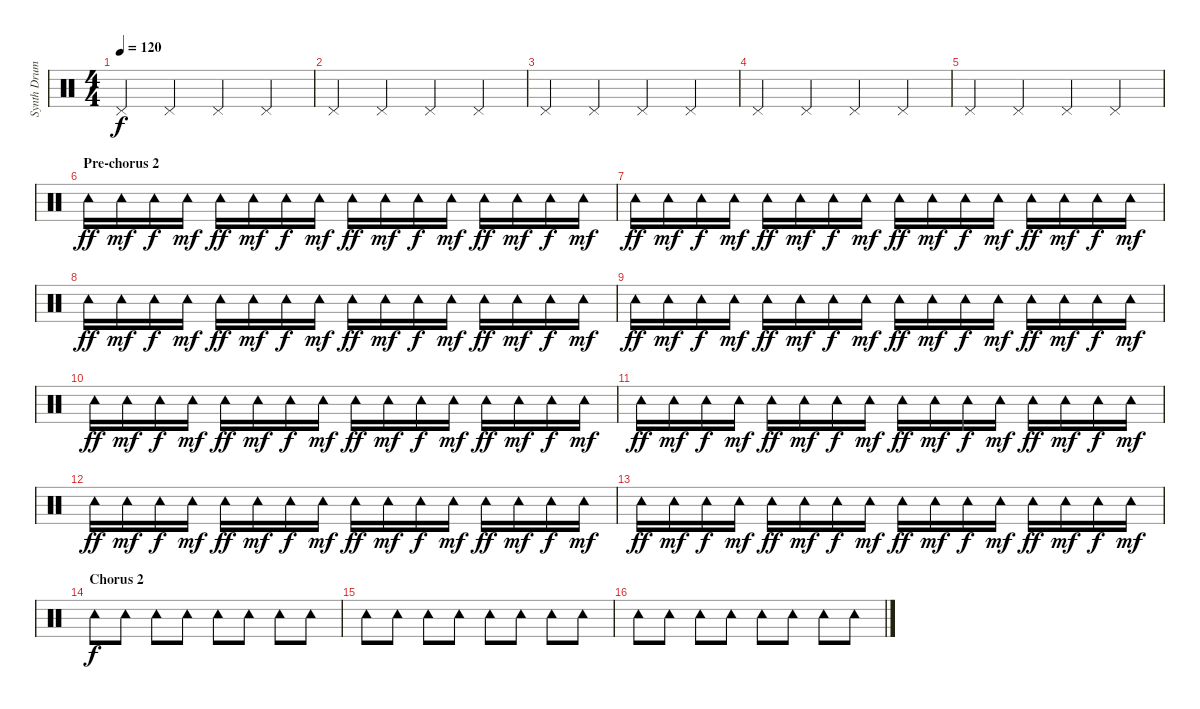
\track ("Synth Drums hihat etc..." "Synth Drum") {instrument percussion}
\staff {score}
\articulation defaults
\ts (4 4)
\tempo 120
\clef neutral
\ks c "Pedal Hi-Hat (hit)".4{dy f} "Pedal Hi-Hat (hit)".4 "Pedal Hi-Hat (hit)".4 "Pedal Hi-Hat (hit)".4
|
"Pedal Hi-Hat (hit)".4 "Pedal Hi-Hat (hit)".4 "Pedal Hi-Hat (hit)".4 "Pedal Hi-Hat (hit)".4 |
"Pedal Hi-Hat (hit)".4 "Pedal Hi-Hat (hit)".4 "Pedal Hi-Hat (hit)".4 "Pedal Hi-Hat (hit)".4 |
"Pedal Hi-Hat (hit)".4 "Pedal Hi-Hat (hit)".4 "Pedal Hi-Hat (hit)".4 "Pedal Hi-Hat (hit)".4 |
"Pedal Hi-Hat (hit)".4 "Pedal Hi-Hat (hit)".4 "Pedal Hi-Hat (hit)".4 "Pedal Hi-Hat (hit)".4 |
\section ("" "Pre-chorus 2")
"Tambourine (hit)".16{dy ff} "Tambourine (hit)".16{dy mf} "Tambourine (hit)".16{dy f} "Tambourine (hit)".16{dy mf} "Tambourine (hit)".16{dy ff} "Tambourine (hit)".16{dy mf} "Tambourine (hit)".16{dy f} "Tambourine (hit)".16{dy mf} "Tambourine (hit)".16{dy ff} "Tambourine (hit)".16{dy mf} "Tambourine (hit)".16{dy f} "Tambourine (hit)".16{dy mf} "Tambourine (hit)".16{dy ff} "Tambourine (hit)".16{dy mf} "Tambourine (hit)".16{dy f} "Tambourine (hit)".16{dy mf} |
"Tambourine (hit)".16{dy ff} "Tambourine (hit)".16{dy mf} "Tambourine (hit)".16{dy f} "Tambourine (hit)".16{dy mf} "Tambourine (hit)".16{dy ff} "Tambourine (hit)".16{dy mf} "Tambourine (hit)".16{dy f} "Tambourine (hit)".16{dy mf} "Tambourine (hit)".16{dy ff} "Tambourine (hit)".16{dy mf} "Tambourine (hit)".16{dy f} "Tambourine (hit)".16{dy mf} "Tambourine (hit)".16{dy ff} "Tambourine (hit)".16{dy mf} "Tambourine (hit)".16{dy f} "Tambourine (hit)".16{dy mf} |
"Tambourine (hit)".16{dy ff} "Tambourine (hit)".16{dy mf} "Tambourine (hit)".16{dy f} "Tambourine (hit)".16{dy mf} "Tambourine (hit)".16{dy ff} "Tambourine (hit)".16{dy mf} "Tambourine (hit)".16{dy f} "Tambourine (hit)".16{dy mf} "Tambourine (hit)".16{dy ff} "Tambourine (hit)".16{dy mf} "Tambourine (hit)".16{dy f} "Tambourine (hit)".16{dy mf} "Tambourine (hit)".16{dy ff} "Tambourine (hit)".16{dy mf} "Tambourine (hit)".16{dy f} "Tambourine (hit)".16{dy mf} |
"Tambourine (hit)".16{dy ff} "Tambourine (hit)".16{dy mf} "Tambourine (hit)".16{dy f} "Tambourine (hit)".16{dy mf} "Tambourine (hit)".16{dy ff} "Tambourine (hit)".16{dy mf} "Tambourine (hit)".16{dy f} "Tambourine (hit)".16{dy mf} "Tambourine (hit)".16{dy ff} "Tambourine (hit)".16{dy mf} "Tambourine (hit)".16{dy f} "Tambourine (hit)".16{dy mf} "Tambourine (hit)".16{dy ff} "Tambourine (hit)".16{dy mf} "Tambourine (hit)".16{dy f} "Tambourine (hit)".16{dy mf} |
"Tambourine (hit)".16{dy ff} "Tambourine (hit)".16{dy mf} "Tambourine (hit)".16{dy f} "Tambourine (hit)".16{dy mf} "Tambourine (hit)".16{dy ff} "Tambourine (hit)".16{dy mf} "Tambourine (hit)".16{dy f} "Tambourine (hit)".16{dy mf} "Tambourine (hit)".16{dy ff} "Tambourine (hit)".16{dy mf} "Tambourine (hit)".16{dy f} "Tambourine (hit)".16{dy mf} "Tambourine (hit)".16{dy ff} "Tambourine (hit)".16{dy mf} "Tambourine (hit)".16{dy f} "Tambourine (hit)".16{dy mf} |
"Tambourine (hit)".16{dy ff} "Tambourine (hit)".16{dy mf} "Tambourine (hit)".16{dy f} "Tambourine (hit)".16{dy mf} "Tambourine (hit)".16{dy ff} "Tambourine (hit)".16{dy mf} "Tambourine (hit)".16{dy f} "Tambourine (hit)".16{dy mf} "Tambourine (hit)".16{dy ff} "Tambourine (hit)".16{dy mf} "Tambourine (hit)".16{dy f} "Tambourine (hit)".16{dy mf} "Tambourine (hit)".16{dy ff} "Tambourine (hit)".16{dy mf} "Tambourine (hit)".16{dy f} "Tambourine (hit)".16{dy mf} |
"Tambourine (hit)".16{dy ff} "Tambourine (hit)".16{dy mf} "Tambourine (hit)".16{dy f} "Tambourine (hit)".16{dy mf} "Tambourine (hit)".16{dy ff} "Tambourine (hit)".16{dy mf} "Tambourine (hit)".16{dy f} "Tambourine (hit)".16{dy mf} "Tambourine (hit)".16{dy ff} "Tambourine (hit)".16{dy mf} "Tambourine (hit)".16{dy f} "Tambourine (hit)".16{dy mf} "Tambourine (hit)".16{dy ff} "Tambourine (hit)".16{dy mf} "Tambourine (hit)".16{dy f} "Tambourine (hit)".16{dy mf} |
"Tambourine (hit)".16{dy ff} "Tambourine (hit)".16{dy mf} "Tambourine (hit)".16{dy f} "Tambourine (hit)".16{dy mf} "Tambourine (hit)".16{dy ff} "Tambourine (hit)".16{dy mf} "Tambourine (hit)".16{dy f} "Tambourine (hit)".16{dy mf} "Tambourine (hit)".16{dy ff} "Tambourine (hit)".16{dy mf} "Tambourine (hit)".16{dy f} "Tambourine (hit)".16{dy mf} "Tambourine (hit)".16{dy ff} "Tambourine (hit)".16{dy mf} "Tambourine (hit)".16{dy f} "Tambourine (hit)".16{dy mf} |
\section ("" "Chorus 2")
"Tambourine (hit)".8{dy f} "Tambourine (hit)".8 "Tambourine (hit)".8 "Tambourine (hit)".8 "Tambourine (hit)".8 "Tambourine (hit)".8 "Tambourine (hit)".8 "Tambourine (hit)".8 |
"Tambourine (hit)".8 "Tambourine (hit)".8 "Tambourine (hit)".8 "Tambourine (hit)".8 "Tambourine (hit)".8 "Tambourine (hit)".8 "Tambourine (hit)".8 "Tambourine (hit)".8 |
"Tambourine (hit)".8 "Tambourine (hit)".8 "Tambourine (hit)".8 "Tambourine (hit)".8 "Tambourine (hit)".8 "Tambourine (hit)".8 "Tambourine (hit)".8 "Tambourine (hit)".8
